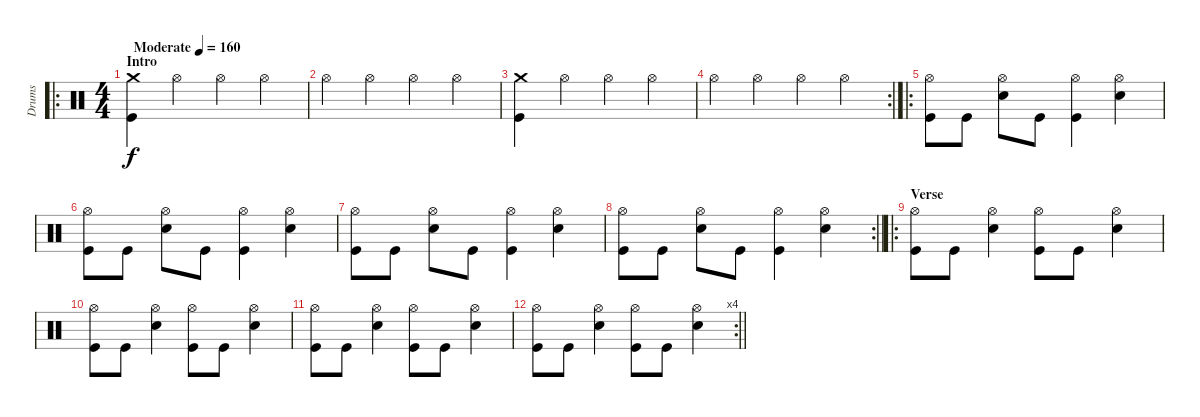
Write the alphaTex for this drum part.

\track ("Drums" "Drums") {instrument percussion}
\staff {score}
\articulation defaults
\ro
\ts (4 4)
\section ("" "Intro")
\tempo (160 "Moderate")
\clef neutral
\ks c
("Crash medium (hit)" "Kick (hit)").4{dy f} "Hi-Hat (open)".4 "Hi-Hat (open)".4 "Hi-Hat (open)".4 |
"Hi-Hat (open)".4 "Hi-Hat (open)".4 "Hi-Hat (open)".4 "Hi-Hat (open)".4 |
("Crash medium (hit)" "Kick (hit)").4 "Hi-Hat (open)".4 "Hi-Hat (open)".4 "Hi-Hat (open)".4 |
\rc 2 "Hi-Hat (open)".4 "Hi-Hat (open)".4 "Hi-Hat (open)".4 "Hi-Hat (open)".4
|
\ro
("Hi-Hat (open)" "Kick (hit)").8 "Kick (hit)".8 ("Hi-Hat (open)" "Snare (hit) 2").8 "Kick (hit)".8 ("Hi-Hat (open)" "Kick (hit)").4 ("Hi-Hat (open)" "Snare (hit) 2").4 |
("Hi-Hat (open)" "Kick (hit)").8 "Kick (hit)".8 ("Hi-Hat (open)" "Snare (hit) 2").8 "Kick (hit)".8 ("Hi-Hat (open)" "Kick (hit)").4 ("Hi-Hat (open)" "Snare (hit) 2").4 |
("Hi-Hat (open)" "Kick (hit)").8 "Kick (hit)".8 ("Hi-Hat (open)" "Snare (hit) 2").8 "Kick (hit)".8 ("Hi-Hat (open)" "Kick (hit)").4 ("Hi-Hat (open)" "Snare (hit) 2").4 |
\rc 2
\barLineRight lightlight
("Hi-Hat (open)" "Kick (hit)").8 "Kick (hit)".8 ("Hi-Hat (open)" "Snare (hit) 2").8 "Kick (hit)".8 ("Hi-Hat (open)" "Kick (hit)").4 ("Hi-Hat (open)" "Snare (hit) 2").4 |
\ro
\section ("" "Verse")
("Hi-Hat (open)" "Kick (hit)").8 "Kick (hit)".8 ("Hi-Hat (open)" "Snare (hit) 2").4 ("Hi-Hat (open)" "Kick (hit)").8 "Kick (hit)".8 ("Hi-Hat (open)" "Snare (hit) 2").4 |
("Hi-Hat (open)" "Kick (hit)").8 "Kick (hit)".8 ("Hi-Hat (open)" "Snare (hit) 2").4 ("Hi-Hat (open)" "Kick (hit)").8 "Kick (hit)".8 ("Hi-Hat (open)" "Snare (hit) 2").4 |
("Hi-Hat (open)" "Kick (hit)").8 "Kick (hit)".8 ("Hi-Hat (open)" "Snare (hit) 2").4 ("Hi-Hat (open)" "Kick (hit)").8 "Kick (hit)".8 ("Hi-Hat (open)" "Snare (hit) 2").4 |
\rc 4
\barLineRight lightlight
("Hi-Hat (open)" "Kick (hit)").8 "Kick (hit)".8 ("Hi-Hat (open)" "Snare (hit) 2").4 ("Hi-Hat (open)" "Kick (hit)").8 "Kick (hit)".8 ("Hi-Hat (open)" "Snare (hit) 2").4
